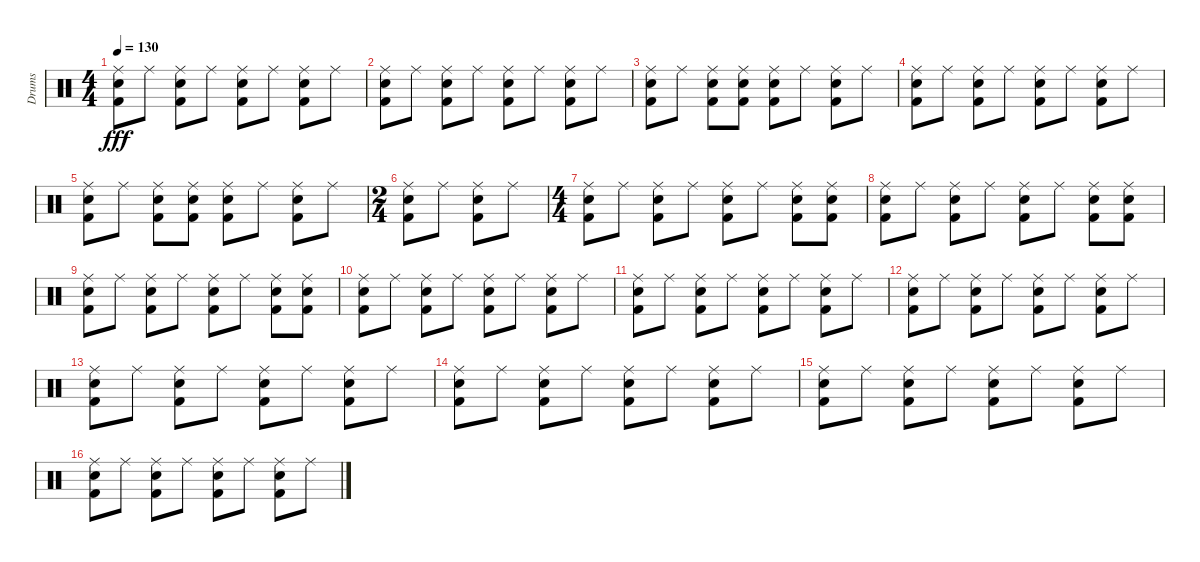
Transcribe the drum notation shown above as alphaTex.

\track ("Drums" "Drums") {instrument percussion}
\staff {score}
\articulation defaults
\ts (4 4)
\tempo 130
\clef neutral
\ks c
("Kick (hit) 2" "Snare (hit) 2" "Ride (middle)").8{dy fff} "Ride (middle)".8 ("Kick (hit) 2" "Snare (hit) 2" "Ride (middle)").8 "Ride (middle)".8 ("Kick (hit) 2" "Snare (hit) 2" "Ride (middle)").8 "Ride (middle)".8 ("Kick (hit) 2" "Snare (hit) 2" "Ride (middle)").8 "Ride (middle)".8 |
("Kick (hit) 2" "Snare (hit) 2" "Ride (middle)").8 "Ride (middle)".8 ("Kick (hit) 2" "Snare (hit) 2" "Ride (middle)").8 "Ride (middle)".8 ("Kick (hit) 2" "Snare (hit) 2" "Ride (middle)").8 "Ride (middle)".8 ("Kick (hit) 2" "Snare (hit) 2" "Ride (middle)").8 "Ride (middle)".8 |
("Kick (hit) 2" "Snare (hit) 2" "Ride (middle)").8 "Ride (middle)".8 ("Kick (hit) 2" "Snare (hit) 2" "Ride (middle)").8 ("Kick (hit) 2" "Snare (hit) 2" "Ride (middle)").8 ("Kick (hit) 2" "Snare (hit) 2" "Ride (middle)").8 "Ride (middle)".8 ("Kick (hit) 2" "Snare (hit) 2" "Ride (middle)").8 "Ride (middle)".8 |
("Kick (hit) 2" "Snare (hit) 2" "Ride (middle)").8 "Ride (middle)".8 ("Kick (hit) 2" "Snare (hit) 2" "Ride (middle)").8 "Ride (middle)".8 ("Kick (hit) 2" "Snare (hit) 2" "Ride (middle)").8 "Ride (middle)".8 ("Kick (hit) 2" "Snare (hit) 2" "Ride (middle)").8 "Ride (middle)".8 |
("Kick (hit) 2" "Snare (hit) 2" "Ride (middle)").8 "Ride (middle)".8 ("Kick (hit) 2" "Snare (hit) 2" "Ride (middle)").8 ("Kick (hit) 2" "Snare (hit) 2" "Ride (middle)").8 ("Kick (hit) 2" "Snare (hit) 2" "Ride (middle)").8 "Ride (middle)".8 ("Kick (hit) 2" "Snare (hit) 2" "Ride (middle)").8 "Ride (middle)".8 |
\ts (2 4)
("Kick (hit) 2" "Snare (hit) 2" "Ride (middle)").8 "Ride (middle)".8 ("Kick (hit) 2" "Snare (hit) 2" "Ride (middle)").8 "Ride (middle)".8 |
\ts (4 4)
("Kick (hit) 2" "Snare (hit) 2" "Ride (middle)").8 "Ride (middle)".8 ("Kick (hit) 2" "Snare (hit) 2" "Ride (middle)").8 "Ride (middle)".8 ("Kick (hit) 2" "Snare (hit) 2" "Ride (middle)").8 "Ride (middle)".8 ("Kick (hit) 2" "Snare (hit) 2" "Ride (middle)").8 ("Kick (hit) 2" "Snare (hit) 2" "Ride (middle)").8 |
("Kick (hit) 2" "Snare (hit) 2" "Ride (middle)").8 "Ride (middle)".8 ("Kick (hit) 2" "Snare (hit) 2" "Ride (middle)").8 "Ride (middle)".8 ("Kick (hit) 2" "Snare (hit) 2" "Ride (middle)").8 "Ride (middle)".8 ("Kick (hit) 2" "Snare (hit) 2" "Ride (middle)").8 ("Kick (hit) 2" "Snare (hit) 2" "Ride (middle)").8 |
("Kick (hit) 2" "Snare (hit) 2" "Ride (middle)").8 "Ride (middle)".8 ("Kick (hit) 2" "Snare (hit) 2" "Ride (middle)").8 "Ride (middle)".8 ("Kick (hit) 2" "Snare (hit) 2" "Ride (middle)").8 "Ride (middle)".8 ("Kick (hit) 2" "Snare (hit) 2" "Ride (middle)").8 ("Kick (hit) 2" "Snare (hit) 2" "Ride (middle)").8 |
("Kick (hit) 2" "Snare (hit) 2" "Ride (middle)").8 "Ride (middle)".8 ("Kick (hit) 2" "Snare (hit) 2" "Ride (middle)").8 "Ride (middle)".8 ("Kick (hit) 2" "Snare (hit) 2" "Ride (middle)").8 "Ride (middle)".8 ("Kick (hit) 2" "Snare (hit) 2" "Ride (middle)").8 "Ride (middle)".8 |
("Kick (hit) 2" "Snare (hit) 2" "Ride (middle)").8 "Ride (middle)".8 ("Kick (hit) 2" "Snare (hit) 2" "Ride (middle)").8 "Ride (middle)".8 ("Kick (hit) 2" "Snare (hit) 2" "Ride (middle)").8 "Ride (middle)".8 ("Kick (hit) 2" "Snare (hit) 2" "Ride (middle)").8 "Ride (middle)".8 |
("Kick (hit) 2" "Snare (hit) 2" "Ride (middle)").8 "Ride (middle)".8 ("Kick (hit) 2" "Snare (hit) 2" "Ride (middle)").8 "Ride (middle)".8 ("Kick (hit) 2" "Snare (hit) 2" "Ride (middle)").8 "Ride (middle)".8 ("Kick (hit) 2" "Snare (hit) 2" "Ride (middle)").8 "Ride (middle)".8 |
("Kick (hit) 2" "Snare (hit) 2" "Ride (middle)").8 "Ride (middle)".8 ("Kick (hit) 2" "Snare (hit) 2" "Ride (middle)").8 "Ride (middle)".8 ("Kick (hit) 2" "Snare (hit) 2" "Ride (middle)").8 "Ride (middle)".8 ("Kick (hit) 2" "Snare (hit) 2" "Ride (middle)").8 "Ride (middle)".8 |
("Kick (hit) 2" "Snare (hit) 2" "Ride (middle)").8 "Ride (middle)".8 ("Kick (hit) 2" "Snare (hit) 2" "Ride (middle)").8 "Ride (middle)".8 ("Kick (hit) 2" "Snare (hit) 2" "Ride (middle)").8 "Ride (middle)".8 ("Kick (hit) 2" "Snare (hit) 2" "Ride (middle)").8 "Ride (middle)".8 |
("Kick (hit) 2" "Snare (hit) 2" "Ride (middle)").8 "Ride (middle)".8 ("Kick (hit) 2" "Snare (hit) 2" "Ride (middle)").8 "Ride (middle)".8 ("Kick (hit) 2" "Snare (hit) 2" "Ride (middle)").8 "Ride (middle)".8 ("Kick (hit) 2" "Snare (hit) 2" "Ride (middle)").8 "Ride (middle)".8 |
("Kick (hit) 2" "Snare (hit) 2" "Ride (middle)").8 "Ride (middle)".8 ("Kick (hit) 2" "Snare (hit) 2" "Ride (middle)").8 "Ride (middle)".8 ("Kick (hit) 2" "Snare (hit) 2" "Ride (middle)").8 "Ride (middle)".8 ("Kick (hit) 2" "Snare (hit) 2" "Ride (middle)").8 "Ride (middle)".8
